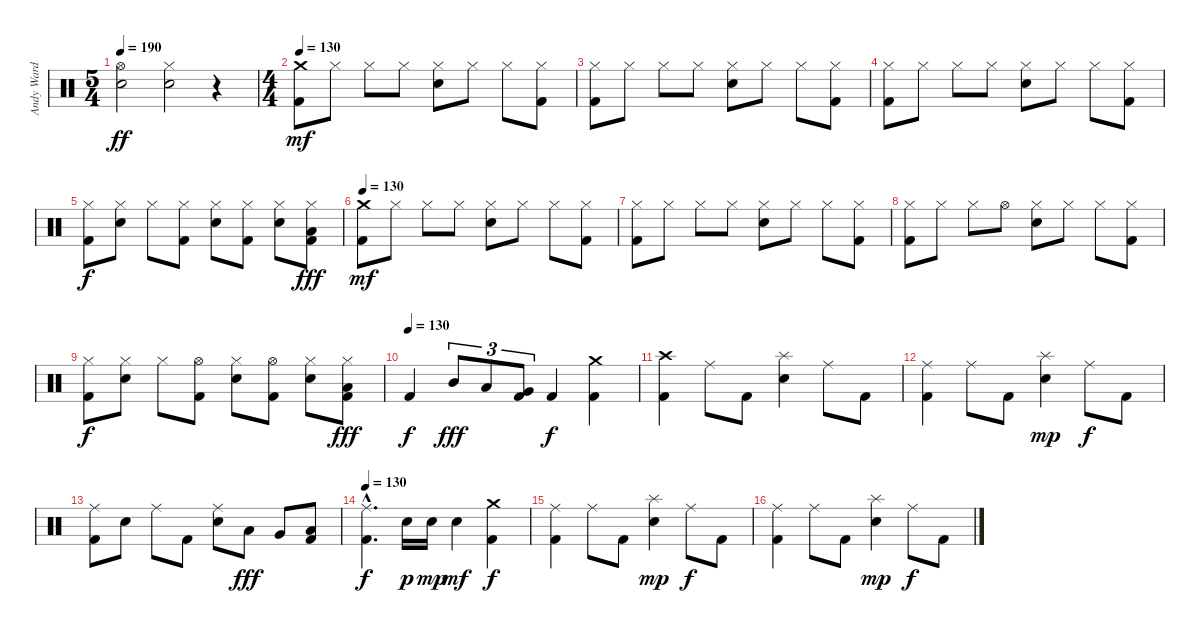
\track ("Andy Ward" "Andy Ward") {instrument percussion}
\staff {score}
\articulation defaults
\ts (5 4)
\tempo 190
\clef neutral
\ks c
("Hi-Hat (open)" "Snare (hit) 2").2{dy ff} ("Hi-Hat (closed)" "Snare (hit) 2").2 r.4 |
\ts (4 4)
\tempo 130
("Crash medium (hit)" "Kick (hit) 2").8{dy mf} "Hi-Hat (closed)".8 "Hi-Hat (closed)".8 "Hi-Hat (closed)".8 ("Hi-Hat (closed)" "Electric Snare (hit)").8 "Hi-Hat (closed)".8 "Hi-Hat (closed)".8 ("Hi-Hat (closed)" "Kick (hit) 2").8 |
("Hi-Hat (closed)" "Kick (hit) 2").8 "Hi-Hat (closed)".8 "Hi-Hat (closed)".8 "Hi-Hat (closed)".8 ("Hi-Hat (closed)" "Electric Snare (hit)").8 "Hi-Hat (closed)".8 "Hi-Hat (closed)".8 ("Hi-Hat (closed)" "Kick (hit) 2").8 |
("Hi-Hat (closed)" "Kick (hit) 2").8 "Hi-Hat (closed)".8 "Hi-Hat (closed)".8 "Hi-Hat (closed)".8 ("Hi-Hat (closed)" "Electric Snare (hit)").8 "Hi-Hat (closed)".8 "Hi-Hat (closed)".8 ("Hi-Hat (closed)" "Kick (hit) 2").8 |
("Hi-Hat (closed)" "Kick (hit) 2").8{dy f} ("Hi-Hat (closed)" "Electric Snare (hit)").8 "Hi-Hat (closed)".8 ("Hi-Hat (closed)" "Kick (hit) 2").8 ("Hi-Hat (closed)" "Electric Snare (hit)").8 ("Hi-Hat (closed)" "Kick (hit) 2").8 ("Hi-Hat (closed)" "Electric Snare (hit)").8 ("Hi-Hat (closed)" "Low Tom (hit)" "Kick (hit) 2").8{dy fff} |
\tempo 130
("Crash medium (hit)" "Kick (hit) 2").8{dy mf} "Hi-Hat (closed)".8 "Hi-Hat (closed)".8 "Hi-Hat (closed)".8 ("Hi-Hat (closed)" "Electric Snare (hit)").8 "Hi-Hat (closed)".8 "Hi-Hat (closed)".8 ("Hi-Hat (closed)" "Kick (hit) 2").8 |
("Hi-Hat (closed)" "Kick (hit) 2").8 "Hi-Hat (closed)".8 "Hi-Hat (closed)".8 "Hi-Hat (closed)".8 ("Hi-Hat (closed)" "Electric Snare (hit)").8 "Hi-Hat (closed)".8 "Hi-Hat (closed)".8 ("Hi-Hat (closed)" "Kick (hit) 2").8 |
("Hi-Hat (closed)" "Kick (hit) 2").8 "Hi-Hat (closed)".8 "Hi-Hat (closed)".8 "Hi-Hat (open)".8 ("Hi-Hat (closed)" "Electric Snare (hit)").8 "Hi-Hat (closed)".8 "Hi-Hat (closed)".8 ("Hi-Hat (closed)" "Kick (hit) 2").8 |
("Hi-Hat (closed)" "Kick (hit) 2").8{dy f} ("Hi-Hat (closed)" "Electric Snare (hit)").8 "Hi-Hat (closed)".8 ("Hi-Hat (open)" "Kick (hit) 2").8 ("Hi-Hat (closed)" "Electric Snare (hit)").8 ("Hi-Hat (open)" "Kick (hit) 2").8 ("Hi-Hat (closed)" "Electric Snare (hit)").8 ("Hi-Hat (closed)" "Low Tom (hit)" "Kick (hit) 2").8{dy fff} |
\tempo (130)
"Kick (hit) 2".4{dy f} "Mid Tom (hit)".8{tu (3 2) dy fff} "Low Tom (hit)".8{tu (3 2)} ("Very Low Tom (hit)" "Kick (hit) 2").8{tu (3 2)} "Kick (hit) 2".4{dy f} ("Crash medium (hit)" "Kick (hit) 2").4 |
("Crash high (hit)" "Kick (hit) 2").4 "Ride (middle)".8 "Kick (hit) 2".8 ("Splash (hit)" "Electric Snare (hit)").4 "Ride (middle)".8 "Kick (hit) 2".8 |
("Ride (middle)" "Kick (hit) 2").4 "Ride (middle)".8 "Kick (hit) 2".8 ("Splash (hit)" "Electric Snare (hit)").4{dy mp} "Ride (middle)".8{dy f} "Kick (hit) 2".8 |
("Ride (middle)" "Kick (hit) 2").8 "Electric Snare (hit)".8 "Ride (middle)".8 "Kick (hit) 2".8 ("Ride (middle)" "Electric Snare (hit)").8 "Low Tom (hit)".8{dy fff} "Very Low Tom (hit)".8 ("Low Floor Tom (hit)" "Kick (hit) 2").8 |
\tempo 130
("Ride (middle)"{hac} "Kick (hit) 2"{hac}).4{d dy f} "Electric Snare (hit)".16{dy p} "Electric Snare (hit)".16{dy mp} "Electric Snare (hit)".4{dy mf} ("Crash medium (hit)" "Kick (hit) 2").4{dy f} |
("Ride (middle)" "Kick (hit) 2").4 "Ride (middle)".8 "Kick (hit) 2".8 ("Splash (hit)" "Electric Snare (hit)").4{dy mp} "Ride (middle)".8{dy f} "Kick (hit) 2".8 |
("Ride (middle)" "Kick (hit) 2").4 "Ride (middle)".8 "Kick (hit) 2".8 ("Splash (hit)" "Electric Snare (hit)").4{dy mp} "Ride (middle)".8{dy f} "Kick (hit) 2".8
